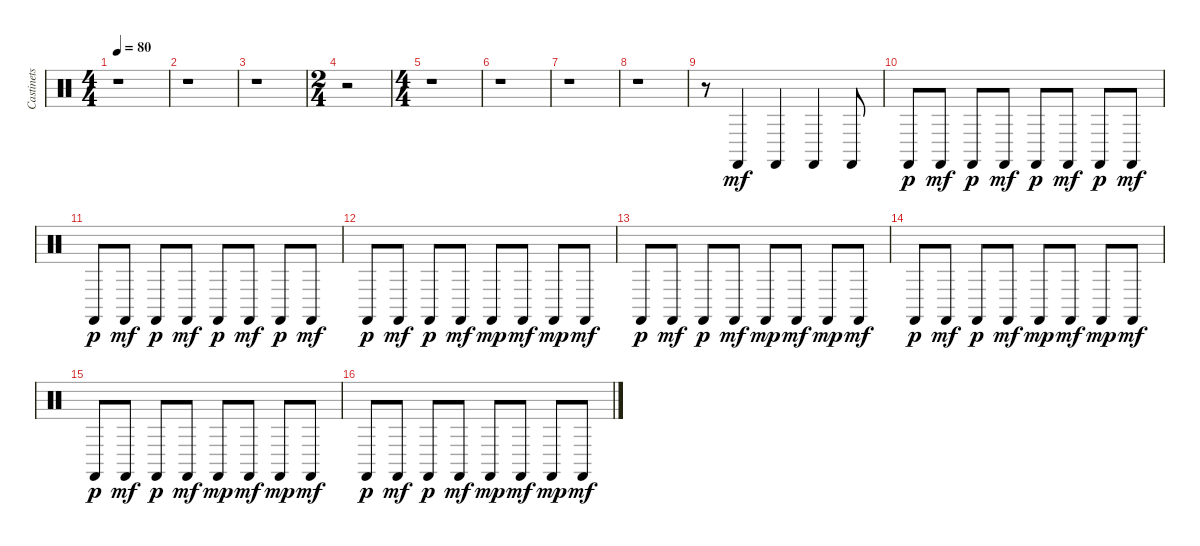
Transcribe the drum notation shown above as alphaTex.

\track ("Castinets" "Castinets") {instrument percussion}
\staff {score}
\articulation defaults
\ts (4 4)
\tempo 80
\clef neutral
\ks c
r.1{dy mf} |
r.1 |
r.1 |
\ts (2 4)
r.2 |
\ts (4 4)
r.1 |
r.1 |
r.1 |
r.1 |
r.8 "Castanets (hit)".4 "Castanets (hit)".4 "Castanets (hit)".4 "Castanets (hit)".8 |
"Castanets (hit)".8{dy p} "Castanets (hit)".8{dy mf} "Castanets (hit)".8{dy p} "Castanets (hit)".8{dy mf} "Castanets (hit)".8{dy p} "Castanets (hit)".8{dy mf} "Castanets (hit)".8{dy p} "Castanets (hit)".8{dy mf} |
"Castanets (hit)".8{dy p} "Castanets (hit)".8{dy mf} "Castanets (hit)".8{dy p} "Castanets (hit)".8{dy mf} "Castanets (hit)".8{dy p} "Castanets (hit)".8{dy mf} "Castanets (hit)".8{dy p} "Castanets (hit)".8{dy mf} |
"Castanets (hit)".8{dy p} "Castanets (hit)".8{dy mf} "Castanets (hit)".8{dy p} "Castanets (hit)".8{dy mf} "Castanets (hit)".8{dy mp} "Castanets (hit)".8{dy mf} "Castanets (hit)".8{dy mp} "Castanets (hit)".8{dy mf} |
"Castanets (hit)".8{dy p} "Castanets (hit)".8{dy mf} "Castanets (hit)".8{dy p} "Castanets (hit)".8{dy mf} "Castanets (hit)".8{dy mp} "Castanets (hit)".8{dy mf} "Castanets (hit)".8{dy mp} "Castanets (hit)".8{dy mf} |
"Castanets (hit)".8{dy p} "Castanets (hit)".8{dy mf} "Castanets (hit)".8{dy p} "Castanets (hit)".8{dy mf} "Castanets (hit)".8{dy mp} "Castanets (hit)".8{dy mf} "Castanets (hit)".8{dy mp} "Castanets (hit)".8{dy mf} |
"Castanets (hit)".8{dy p} "Castanets (hit)".8{dy mf} "Castanets (hit)".8{dy p} "Castanets (hit)".8{dy mf} "Castanets (hit)".8{dy mp} "Castanets (hit)".8{dy mf} "Castanets (hit)".8{dy mp} "Castanets (hit)".8{dy mf} |
"Castanets (hit)".8{dy p} "Castanets (hit)".8{dy mf} "Castanets (hit)".8{dy p} "Castanets (hit)".8{dy mf} "Castanets (hit)".8{dy mp} "Castanets (hit)".8{dy mf} "Castanets (hit)".8{dy mp} "Castanets (hit)".8{dy mf}
